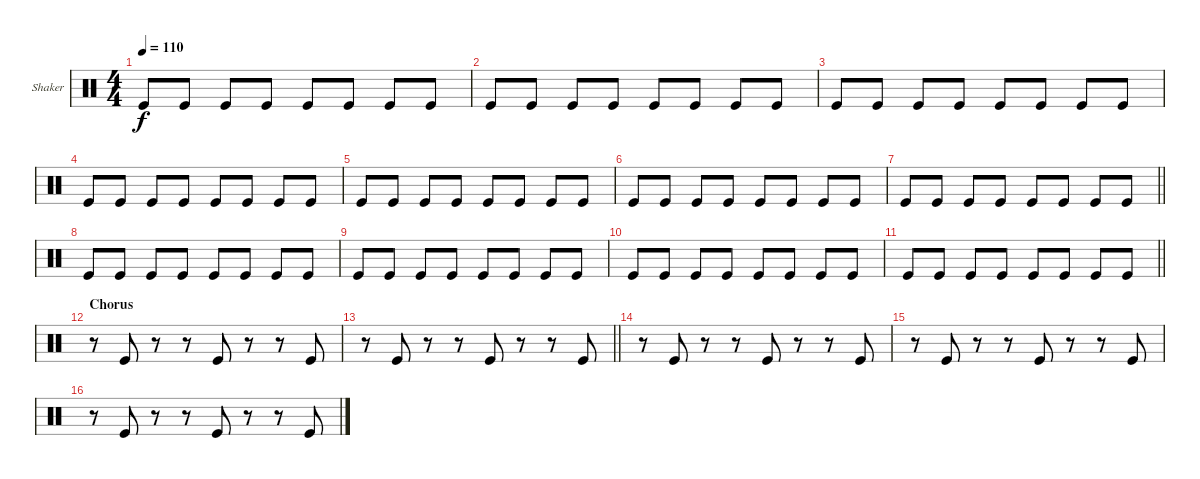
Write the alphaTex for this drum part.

\bracketExtendMode groupsimilarinstruments
\firstSystemTrackNameOrientation horizontal
\otherSystemsTrackNameOrientation horizontal
\track ("Shaker" "Shaker") {instrument percussion}
\staff {score}
\articulation defaults
\ts (4 4)
\tempo 110
\clef neutral
\ks c "Kick (hit)".8{dy f} "Kick (hit)".8 "Kick (hit)".8 "Kick (hit)".8 "Kick (hit)".8 "Kick (hit)".8 "Kick (hit)".8 "Kick (hit)".8
|
"Kick (hit)".8 "Kick (hit)".8 "Kick (hit)".8 "Kick (hit)".8 "Kick (hit)".8 "Kick (hit)".8 "Kick (hit)".8 "Kick (hit)".8 |
"Kick (hit)".8 "Kick (hit)".8 "Kick (hit)".8 "Kick (hit)".8 "Kick (hit)".8 "Kick (hit)".8 "Kick (hit)".8 "Kick (hit)".8 |
"Kick (hit)".8 "Kick (hit)".8 "Kick (hit)".8 "Kick (hit)".8 "Kick (hit)".8 "Kick (hit)".8 "Kick (hit)".8 "Kick (hit)".8 |
"Kick (hit)".8 "Kick (hit)".8 "Kick (hit)".8 "Kick (hit)".8 "Kick (hit)".8 "Kick (hit)".8 "Kick (hit)".8 "Kick (hit)".8 |
"Kick (hit)".8 "Kick (hit)".8 "Kick (hit)".8 "Kick (hit)".8 "Kick (hit)".8 "Kick (hit)".8 "Kick (hit)".8 "Kick (hit)".8 |
\barLineRight lightlight "Kick (hit)".8 "Kick (hit)".8 "Kick (hit)".8 "Kick (hit)".8 "Kick (hit)".8 "Kick (hit)".8 "Kick (hit)".8 "Kick (hit)".8
|
"Kick (hit)".8 "Kick (hit)".8 "Kick (hit)".8 "Kick (hit)".8 "Kick (hit)".8 "Kick (hit)".8 "Kick (hit)".8 "Kick (hit)".8 |
"Kick (hit)".8 "Kick (hit)".8 "Kick (hit)".8 "Kick (hit)".8 "Kick (hit)".8 "Kick (hit)".8 "Kick (hit)".8 "Kick (hit)".8 |
"Kick (hit)".8 "Kick (hit)".8 "Kick (hit)".8 "Kick (hit)".8 "Kick (hit)".8 "Kick (hit)".8 "Kick (hit)".8 "Kick (hit)".8 |
\barLineRight lightlight "Kick (hit)".8 "Kick (hit)".8 "Kick (hit)".8 "Kick (hit)".8 "Kick (hit)".8 "Kick (hit)".8 "Kick (hit)".8 "Kick (hit)".8
|
\section ("" "Chorus")
r.8 "Kick (hit)".8 r.8 r.8 "Kick (hit)".8 r.8 r.8 "Kick (hit)".8 |
\barLineRight lightlight
r.8 "Kick (hit)".8 r.8 r.8 "Kick (hit)".8 r.8 r.8 "Kick (hit)".8 |
r.8 "Kick (hit)".8 r.8 r.8 "Kick (hit)".8 r.8 r.8 "Kick (hit)".8 |
r.8 "Kick (hit)".8 r.8 r.8 "Kick (hit)".8 r.8 r.8 "Kick (hit)".8 |
r.8 "Kick (hit)".8 r.8 r.8 "Kick (hit)".8 r.8 r.8 "Kick (hit)".8
